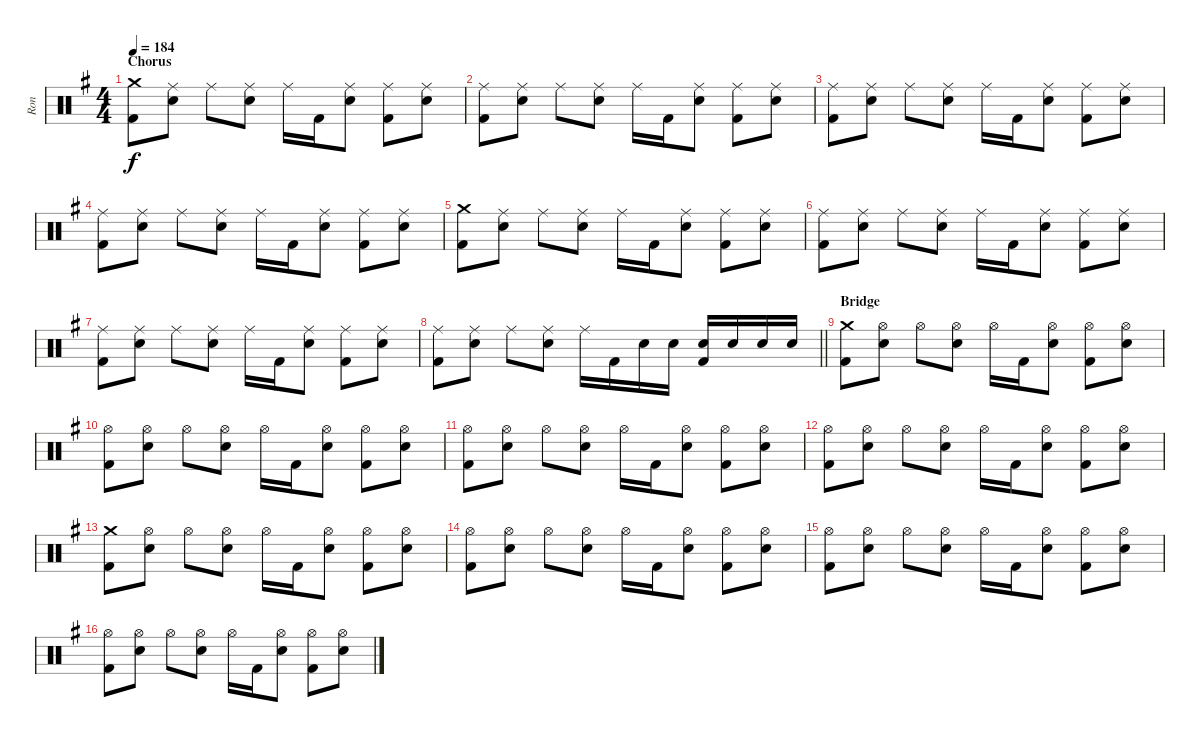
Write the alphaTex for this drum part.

\track ("Ron" "Ron") {instrument percussion}
\staff {score}
\articulation defaults
\ts (4 4)
\section ("" "Chorus")
\tempo 184
\clef neutral
\ks eminor
("Crash medium (hit)" "Kick (hit) 2").8{dy f} ("Ride (middle)" "Electric Snare (hit)").8 "Ride (middle)".8 ("Ride (middle)" "Electric Snare (hit)").8 "Ride (middle)".16 "Kick (hit) 2".16 ("Ride (middle)" "Electric Snare (hit)").8 ("Ride (middle)" "Kick (hit) 2").8 ("Ride (middle)" "Electric Snare (hit)").8 |
("Ride (middle)" "Kick (hit) 2").8 ("Ride (middle)" "Electric Snare (hit)").8 "Ride (middle)".8 ("Ride (middle)" "Electric Snare (hit)").8 "Ride (middle)".16 "Kick (hit) 2".16 ("Ride (middle)" "Electric Snare (hit)").8 ("Ride (middle)" "Kick (hit) 2").8 ("Ride (middle)" "Electric Snare (hit)").8 |
("Ride (middle)" "Kick (hit) 2").8 ("Ride (middle)" "Electric Snare (hit)").8 "Ride (middle)".8 ("Ride (middle)" "Electric Snare (hit)").8 "Ride (middle)".16 "Kick (hit) 2".16 ("Ride (middle)" "Electric Snare (hit)").8 ("Ride (middle)" "Kick (hit) 2").8 ("Ride (middle)" "Electric Snare (hit)").8 |
("Ride (middle)" "Kick (hit) 2").8 ("Ride (middle)" "Electric Snare (hit)").8 "Ride (middle)".8 ("Ride (middle)" "Electric Snare (hit)").8 "Ride (middle)".16 "Kick (hit) 2".16 ("Ride (middle)" "Electric Snare (hit)").8 ("Ride (middle)" "Kick (hit) 2").8 ("Ride (middle)" "Electric Snare (hit)").8 |
("Crash medium (hit)" "Kick (hit) 2").8 ("Ride (middle)" "Electric Snare (hit)").8 "Ride (middle)".8 ("Ride (middle)" "Electric Snare (hit)").8 "Ride (middle)".16 "Kick (hit) 2".16 ("Ride (middle)" "Electric Snare (hit)").8 ("Ride (middle)" "Kick (hit) 2").8 ("Ride (middle)" "Electric Snare (hit)").8 |
("Ride (middle)" "Kick (hit) 2").8 ("Ride (middle)" "Electric Snare (hit)").8 "Ride (middle)".8 ("Ride (middle)" "Electric Snare (hit)").8 "Ride (middle)".16 "Kick (hit) 2".16 ("Ride (middle)" "Electric Snare (hit)").8 ("Ride (middle)" "Kick (hit) 2").8 ("Ride (middle)" "Electric Snare (hit)").8 |
("Ride (middle)" "Kick (hit) 2").8 ("Ride (middle)" "Electric Snare (hit)").8 "Ride (middle)".8 ("Ride (middle)" "Electric Snare (hit)").8 "Ride (middle)".16 "Kick (hit) 2".16 ("Ride (middle)" "Electric Snare (hit)").8 ("Ride (middle)" "Kick (hit) 2").8 ("Ride (middle)" "Electric Snare (hit)").8 |
\barLineRight lightlight
("Ride (middle)" "Kick (hit) 2").8 ("Ride (middle)" "Electric Snare (hit)").8 "Ride (middle)".8 ("Ride (middle)" "Electric Snare (hit)").8 "Ride (middle)".16 "Kick (hit) 2".16 "Electric Snare (hit)".16 "Electric Snare (hit)".16 ("Electric Snare (hit)" "Kick (hit) 2").16 "Electric Snare (hit)".16 "Electric Snare (hit)".16 "Electric Snare (hit)".16 |
\section ("" "Bridge")
("Crash medium (hit)" "Kick (hit) 2").8 ("Hi-Hat (open)" "Electric Snare (hit)").8 "Hi-Hat (open)".8 ("Hi-Hat (open)" "Electric Snare (hit)").8 "Hi-Hat (open)".16 "Kick (hit) 2".16 ("Hi-Hat (open)" "Electric Snare (hit)").8 ("Hi-Hat (open)" "Kick (hit) 2").8 ("Hi-Hat (open)" "Electric Snare (hit)").8 |
("Hi-Hat (open)" "Kick (hit) 2").8 ("Hi-Hat (open)" "Electric Snare (hit)").8 "Hi-Hat (open)".8 ("Hi-Hat (open)" "Electric Snare (hit)").8 "Hi-Hat (open)".16 "Kick (hit) 2".16 ("Hi-Hat (open)" "Electric Snare (hit)").8 ("Hi-Hat (open)" "Kick (hit) 2").8 ("Hi-Hat (open)" "Electric Snare (hit)").8 |
("Hi-Hat (open)" "Kick (hit) 2").8 ("Hi-Hat (open)" "Electric Snare (hit)").8 "Hi-Hat (open)".8 ("Hi-Hat (open)" "Electric Snare (hit)").8 "Hi-Hat (open)".16 "Kick (hit) 2".16 ("Hi-Hat (open)" "Electric Snare (hit)").8 ("Hi-Hat (open)" "Kick (hit) 2").8 ("Hi-Hat (open)" "Electric Snare (hit)").8 |
("Hi-Hat (open)" "Kick (hit) 2").8 ("Hi-Hat (open)" "Electric Snare (hit)").8 "Hi-Hat (open)".8 ("Hi-Hat (open)" "Electric Snare (hit)").8 "Hi-Hat (open)".16 "Kick (hit) 2".16 ("Hi-Hat (open)" "Electric Snare (hit)").8 ("Hi-Hat (open)" "Kick (hit) 2").8 ("Hi-Hat (open)" "Electric Snare (hit)").8 |
("Crash medium (hit)" "Kick (hit) 2").8 ("Hi-Hat (open)" "Electric Snare (hit)").8 "Hi-Hat (open)".8 ("Hi-Hat (open)" "Electric Snare (hit)").8 "Hi-Hat (open)".16 "Kick (hit) 2".16 ("Hi-Hat (open)" "Electric Snare (hit)").8 ("Hi-Hat (open)" "Kick (hit) 2").8 ("Hi-Hat (open)" "Electric Snare (hit)").8 |
("Hi-Hat (open)" "Kick (hit) 2").8 ("Hi-Hat (open)" "Electric Snare (hit)").8 "Hi-Hat (open)".8 ("Hi-Hat (open)" "Electric Snare (hit)").8 "Hi-Hat (open)".16 "Kick (hit) 2".16 ("Hi-Hat (open)" "Electric Snare (hit)").8 ("Hi-Hat (open)" "Kick (hit) 2").8 ("Hi-Hat (open)" "Electric Snare (hit)").8 |
("Hi-Hat (open)" "Kick (hit) 2").8 ("Hi-Hat (open)" "Electric Snare (hit)").8 "Hi-Hat (open)".8 ("Hi-Hat (open)" "Electric Snare (hit)").8 "Hi-Hat (open)".16 "Kick (hit) 2".16 ("Hi-Hat (open)" "Electric Snare (hit)").8 ("Hi-Hat (open)" "Kick (hit) 2").8 ("Hi-Hat (open)" "Electric Snare (hit)").8 |
("Hi-Hat (open)" "Kick (hit) 2").8 ("Hi-Hat (open)" "Electric Snare (hit)").8 "Hi-Hat (open)".8 ("Hi-Hat (open)" "Electric Snare (hit)").8 "Hi-Hat (open)".16 "Kick (hit) 2".16 ("Hi-Hat (open)" "Electric Snare (hit)").8 ("Hi-Hat (open)" "Kick (hit) 2").8 ("Hi-Hat (open)" "Electric Snare (hit)").8
